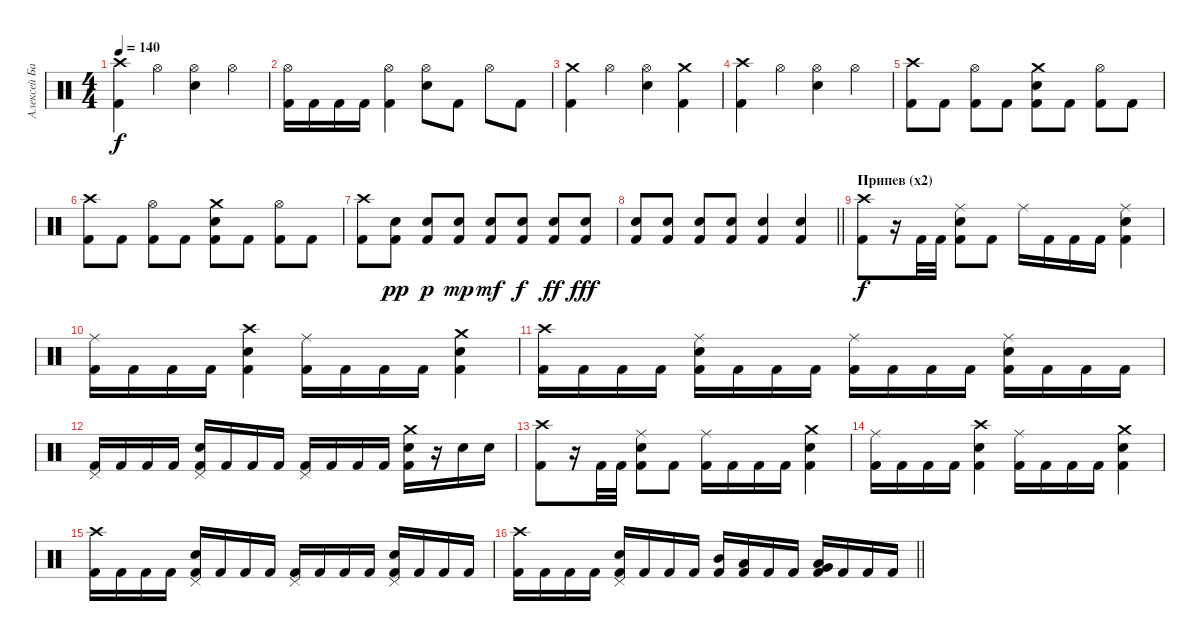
\track ("Алексей Барзилович" "Алексей Ба") {instrument percussion}
\staff {score}
\articulation defaults
\ts (4 4)
\tempo 140
\clef neutral
\ks c
("Crash high (hit)" "Kick (hit) 2").4{dy f} "Hi-Hat (open)".4 ("Hi-Hat (open)" "Electric Snare (hit)").4 "Hi-Hat (open)".4 |
("Hi-Hat (open)" "Kick (hit) 2").16 "Kick (hit) 2".16 "Kick (hit) 2".16 "Kick (hit) 2".16 ("Hi-Hat (open)" "Kick (hit) 2").4 ("Hi-Hat (open)" "Electric Snare (hit)").8 "Kick (hit) 2".8 "Hi-Hat (open)".8 "Kick (hit) 2".8 |
("Crash medium (hit)" "Kick (hit) 2").4 "Hi-Hat (open)".4 ("Hi-Hat (open)" "Electric Snare (hit)").4 ("Crash medium (hit)" "Kick (hit) 2").4 |
("Crash high (hit)" "Kick (hit) 2").4 "Hi-Hat (open)".4 ("Hi-Hat (open)" "Electric Snare (hit)").4 "Hi-Hat (open)".4 |
("Crash high (hit)" "Kick (hit) 2").8 "Kick (hit) 2".8 ("Hi-Hat (open)" "Kick (hit) 2").8 "Kick (hit) 2".8 ("Crash medium (hit)" "Electric Snare (hit)" "Kick (hit) 2").8 "Kick (hit) 2".8 ("Hi-Hat (open)" "Kick (hit) 2").8 "Kick (hit) 2".8 |
("Crash high (hit)" "Kick (hit) 2").8 "Kick (hit) 2".8 ("Hi-Hat (open)" "Kick (hit) 2").8 "Kick (hit) 2".8 ("Crash medium (hit)" "Electric Snare (hit)" "Kick (hit) 2").8 "Kick (hit) 2".8 ("Hi-Hat (open)" "Kick (hit) 2").8 "Kick (hit) 2".8 |
("Crash high (hit)" "Kick (hit) 2").8 ("Electric Snare (hit)" "Kick (hit) 2").8{dy pp} ("Electric Snare (hit)" "Kick (hit) 2").8{dy p} ("Electric Snare (hit)" "Kick (hit) 2").8{dy mp} ("Electric Snare (hit)" "Kick (hit) 2").8{dy mf} ("Electric Snare (hit)" "Kick (hit) 2").8{dy f} ("Electric Snare (hit)" "Kick (hit) 2").8{dy ff} ("Electric Snare (hit)" "Kick (hit) 2").8{dy fff} |
\barLineRight lightlight
("Electric Snare (hit)" "Kick (hit) 2").8 ("Electric Snare (hit)" "Kick (hit) 2").8 ("Electric Snare (hit)" "Kick (hit) 2").8 ("Electric Snare (hit)" "Kick (hit) 2").8 ("Electric Snare (hit)" "Kick (hit) 2").4 ("Electric Snare (hit)" "Kick (hit) 2").4 |
\section ("" "Припев (x2)")
("Crash high (hit)" "Kick (hit) 2").8{dy f} r.16 "Kick (hit) 2".32 "Kick (hit) 2".32 ("Ride (middle)" "Electric Snare (hit)" "Kick (hit) 2").8 "Kick (hit) 2".8 "Ride (middle)".16 "Kick (hit) 2".16 "Kick (hit) 2".16 "Kick (hit) 2".16 ("Ride (middle)" "Electric Snare (hit)" "Kick (hit) 2").4 |
("Ride (middle)" "Kick (hit) 2").16 "Kick (hit) 2".16 "Kick (hit) 2".16 "Kick (hit) 2".16 ("Crash high (hit)" "Electric Snare (hit)" "Kick (hit) 2").4 ("Ride (middle)" "Kick (hit) 2").16 "Kick (hit) 2".16 "Kick (hit) 2".16 "Kick (hit) 2".16 ("Crash medium (hit)" "Electric Snare (hit)" "Kick (hit) 2").4 |
("Crash high (hit)" "Kick (hit) 2").16 "Kick (hit) 2".16 "Kick (hit) 2".16 "Kick (hit) 2".16 ("Ride (middle)" "Electric Snare (hit)" "Kick (hit) 2").16 "Kick (hit) 2".16 "Kick (hit) 2".16 "Kick (hit) 2".16 ("Ride (middle)" "Kick (hit) 2").16 "Kick (hit) 2".16 "Kick (hit) 2".16 "Kick (hit) 2".16 ("Ride (middle)" "Electric Snare (hit)" "Kick (hit) 2").16 "Kick (hit) 2".16 "Kick (hit) 2".16 "Kick (hit) 2".16 |
("Pedal Hi-Hat (hit)" "Kick (hit) 2").16 "Kick (hit) 2".16 "Kick (hit) 2".16 "Kick (hit) 2".16 ("Pedal Hi-Hat (hit)" "Electric Snare (hit)" "Kick (hit) 2").16 "Kick (hit) 2".16 "Kick (hit) 2".16 "Kick (hit) 2".16 ("Pedal Hi-Hat (hit)" "Kick (hit) 2").16 "Kick (hit) 2".16 "Kick (hit) 2".16 "Kick (hit) 2".16 ("Crash medium (hit)" "Electric Snare (hit)" "Kick (hit) 2").16 r.16 "Electric Snare (hit)".16 "Electric Snare (hit)".16 |
("Crash high (hit)" "Kick (hit) 2").8 r.16 "Kick (hit) 2".32 "Kick (hit) 2".32 ("Ride (middle)" "Electric Snare (hit)" "Kick (hit) 2").8 "Kick (hit) 2".8 ("Ride (middle)" "Kick (hit) 2").16 "Kick (hit) 2".16 "Kick (hit) 2".16 "Kick (hit) 2".16 ("Crash medium (hit)" "Electric Snare (hit)" "Kick (hit) 2").4 |
("Ride (middle)" "Kick (hit) 2").16 "Kick (hit) 2".16 "Kick (hit) 2".16 "Kick (hit) 2".16 ("Crash high (hit)" "Electric Snare (hit)" "Kick (hit) 2").4 ("Ride (middle)" "Kick (hit) 2").16 "Kick (hit) 2".16 "Kick (hit) 2".16 "Kick (hit) 2".16 ("Crash medium (hit)" "Electric Snare (hit)" "Kick (hit) 2").4 |
("Crash high (hit)" "Kick (hit) 2").16 "Kick (hit) 2".16 "Kick (hit) 2".16 "Kick (hit) 2".16 ("Pedal Hi-Hat (hit)" "Electric Snare (hit)" "Kick (hit) 2").16 "Kick (hit) 2".16 "Kick (hit) 2".16 "Kick (hit) 2".16 ("Pedal Hi-Hat (hit)" "Kick (hit) 2").16 "Kick (hit) 2".16 "Kick (hit) 2".16 "Kick (hit) 2".16 ("Pedal Hi-Hat (hit)" "Electric Snare (hit)" "Kick (hit) 2").16 "Kick (hit) 2".16 "Kick (hit) 2".16 "Kick (hit) 2".16 |
\barLineRight lightlight
("Crash high (hit)" "Kick (hit) 2").16 "Kick (hit) 2".16 "Kick (hit) 2".16 "Kick (hit) 2".16 ("Pedal Hi-Hat (hit)" "Electric Snare (hit)" "Kick (hit) 2").16 "Kick (hit) 2".16 "Kick (hit) 2".16 "Kick (hit) 2".16 ("Mid Tom (hit)" "Kick (hit) 2").16 ("Low Tom (hit)" "Kick (hit) 2").16 "Kick (hit) 2".16 "Kick (hit) 2".16 ("Very Low Tom (hit)" "Low Floor Tom (hit)" "Kick (hit) 2").16 "Kick (hit) 2".16 "Kick (hit) 2".16 "Kick (hit) 2".16
